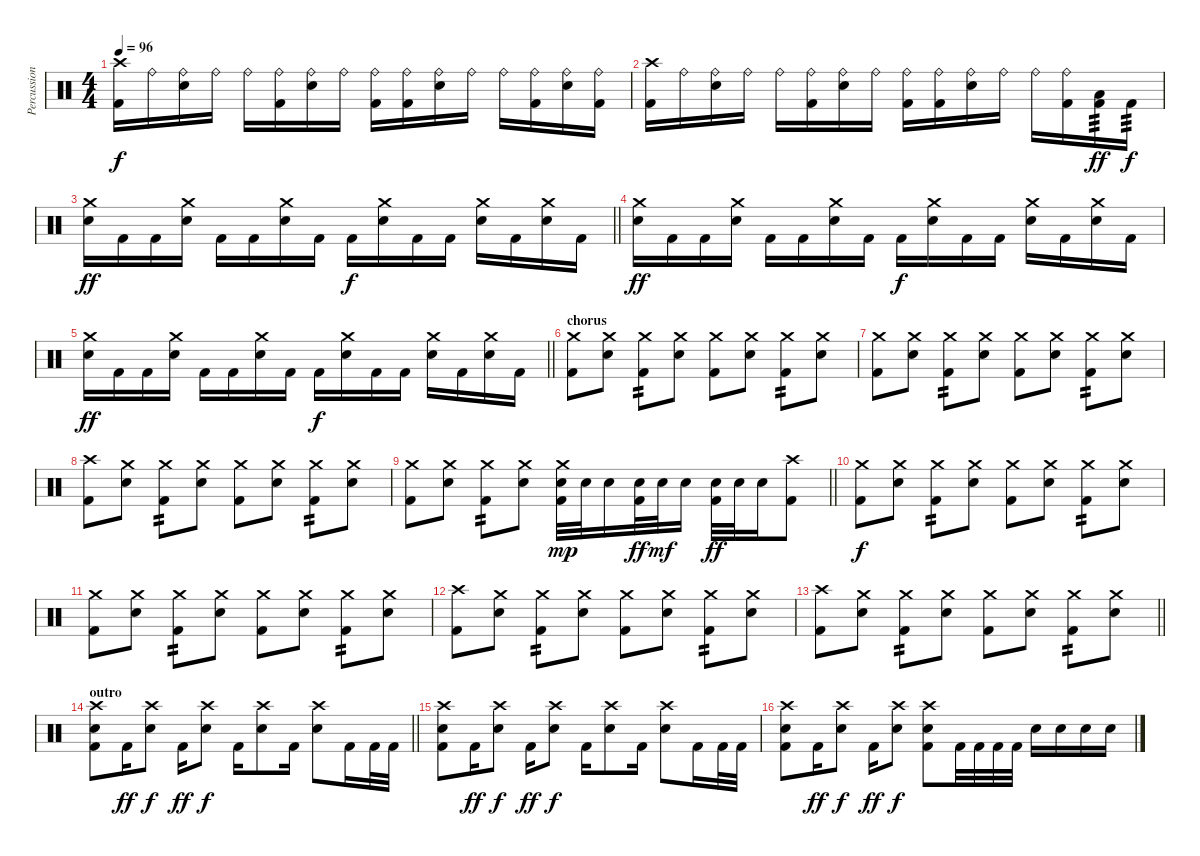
\track ("Percussion" "Percussion") {instrument percussion}
\staff {score}
\articulation defaults
\ts (4 4)
\tempo 96
\clef neutral
\ks c
("Crash high (hit)" "Kick (hit) 2").16{dy f} "Ride (bell)".16 ("Ride (bell)" "Electric Snare (hit)").16 "Ride (bell)".16 "Ride (bell)".16 ("Ride (bell)" "Kick (hit) 2").16 ("Ride (bell)" "Electric Snare (hit)").16 "Ride (bell)".16 ("Ride (bell)" "Kick (hit) 2").16 ("Ride (bell)" "Kick (hit) 2").16 ("Ride (bell)" "Electric Snare (hit)").16 "Ride (bell)".16 "Ride (bell)".16 ("Ride (bell)" "Kick (hit) 2").16 ("Ride (bell)" "Electric Snare (hit)").16 ("Ride (bell)" "Kick (hit) 2").16 |
("Crash high (hit)" "Kick (hit) 2").16 "Ride (bell)".16 ("Ride (bell)" "Electric Snare (hit)").16 "Ride (bell)".16 "Ride (bell)".16 ("Ride (bell)" "Kick (hit) 2").16 ("Ride (bell)" "Electric Snare (hit)").16 "Ride (bell)".16 ("Ride (bell)" "Kick (hit) 2").16 ("Ride (bell)" "Kick (hit) 2").16 ("Ride (bell)" "Electric Snare (hit)").16 "Ride (bell)".16 "Ride (bell)".16 ("Ride (bell)" "Kick (hit) 2").16 ("Low Tom (hit)" "Kick (hit) 2").16{tp 3 dy ff} "Kick (hit) 2".16{tp 3 dy f} |
\barLineRight lightlight
("Crash medium (hit)" "Electric Snare (hit)").16{dy ff} "Kick (hit) 2".16 "Kick (hit) 2".16 ("Crash medium (hit)" "Electric Snare (hit)").16 "Kick (hit) 2".16 "Kick (hit) 2".16 ("Crash medium (hit)" "Electric Snare (hit)").16 "Kick (hit) 2".16 "Kick (hit) 2".16{dy f} ("Crash medium (hit)" "Electric Snare (hit)").16 "Kick (hit) 2".16 "Kick (hit) 2".16 ("Crash medium (hit)" "Electric Snare (hit)").16 "Kick (hit) 2".16 ("Crash medium (hit)" "Electric Snare (hit)").16 "Kick (hit) 2".16 |
("Crash medium (hit)" "Electric Snare (hit)").16{dy ff} "Kick (hit) 2".16 "Kick (hit) 2".16 ("Crash medium (hit)" "Electric Snare (hit)").16 "Kick (hit) 2".16 "Kick (hit) 2".16 ("Crash medium (hit)" "Electric Snare (hit)").16 "Kick (hit) 2".16 "Kick (hit) 2".16{dy f} ("Crash medium (hit)" "Electric Snare (hit)").16 "Kick (hit) 2".16 "Kick (hit) 2".16 ("Crash medium (hit)" "Electric Snare (hit)").16 "Kick (hit) 2".16 ("Crash medium (hit)" "Electric Snare (hit)").16 "Kick (hit) 2".16 |
\barLineRight lightlight
("Crash medium (hit)" "Electric Snare (hit)").16{dy ff} "Kick (hit) 2".16 "Kick (hit) 2".16 ("Crash medium (hit)" "Electric Snare (hit)").16 "Kick (hit) 2".16 "Kick (hit) 2".16 ("Crash medium (hit)" "Electric Snare (hit)").16 "Kick (hit) 2".16 "Kick (hit) 2".16{dy f} ("Crash medium (hit)" "Electric Snare (hit)").16 "Kick (hit) 2".16 "Kick (hit) 2".16 ("Crash medium (hit)" "Electric Snare (hit)").16 "Kick (hit) 2".16 ("Crash medium (hit)" "Electric Snare (hit)").16 "Kick (hit) 2".16 |
\section ("" "chorus")
("Crash medium (hit)" "Kick (hit) 2").8 ("Crash medium (hit)" "Electric Snare (hit)").8 ("Crash medium (hit)" "Kick (hit) 2").8{tp 2} ("Crash medium (hit)" "Electric Snare (hit)").8 ("Crash medium (hit)" "Kick (hit) 2").8 ("Crash medium (hit)" "Electric Snare (hit)").8 ("Crash medium (hit)" "Kick (hit) 2").8{tp 2} ("Crash medium (hit)" "Electric Snare (hit)").8 |
("Crash medium (hit)" "Kick (hit) 2").8 ("Crash medium (hit)" "Electric Snare (hit)").8 ("Crash medium (hit)" "Kick (hit) 2").8{tp 2} ("Crash medium (hit)" "Electric Snare (hit)").8 ("Crash medium (hit)" "Kick (hit) 2").8 ("Crash medium (hit)" "Electric Snare (hit)").8 ("Crash medium (hit)" "Kick (hit) 2").8{tp 2} ("Crash medium (hit)" "Electric Snare (hit)").8 |
("Crash high (hit)" "Kick (hit) 2").8 ("Crash medium (hit)" "Electric Snare (hit)").8 ("Crash medium (hit)" "Kick (hit) 2").8{tp 2} ("Crash medium (hit)" "Electric Snare (hit)").8 ("Crash medium (hit)" "Kick (hit) 2").8 ("Crash medium (hit)" "Electric Snare (hit)").8 ("Crash medium (hit)" "Kick (hit) 2").8{tp 2} ("Crash medium (hit)" "Electric Snare (hit)").8 |
\barLineRight lightlight
("Crash medium (hit)" "Kick (hit) 2").8 ("Crash medium (hit)" "Electric Snare (hit)").8 ("Crash medium (hit)" "Kick (hit) 2").8{tp 2} ("Crash medium (hit)" "Electric Snare (hit)").8 ("Crash medium (hit)" "Electric Snare (hit)" "Kick (hit) 2").32{dy mp} "Electric Snare (hit)".32 "Electric Snare (hit)".16 ("Electric Snare (hit)" "Kick (hit) 2").32{dy ff} "Electric Snare (hit)".32{dy mf} "Electric Snare (hit)".16 ("Electric Snare (hit)" "Kick (hit) 2").32{dy ff} "Electric Snare (hit)".32 "Electric Snare (hit)".16 ("Crash high (hit)" "Kick (hit) 2").8 |
("Crash medium (hit)" "Kick (hit) 2").8{dy f} ("Crash medium (hit)" "Electric Snare (hit)").8 ("Crash medium (hit)" "Kick (hit) 2").8{tp 2} ("Crash medium (hit)" "Electric Snare (hit)").8 ("Crash medium (hit)" "Kick (hit) 2").8 ("Crash medium (hit)" "Electric Snare (hit)").8 ("Crash medium (hit)" "Kick (hit) 2").8{tp 2} ("Crash medium (hit)" "Electric Snare (hit)").8 |
("Crash medium (hit)" "Kick (hit) 2").8 ("Crash medium (hit)" "Electric Snare (hit)").8 ("Crash medium (hit)" "Kick (hit) 2").8{tp 2} ("Crash medium (hit)" "Electric Snare (hit)").8 ("Crash medium (hit)" "Kick (hit) 2").8 ("Crash medium (hit)" "Electric Snare (hit)").8 ("Crash medium (hit)" "Kick (hit) 2").8{tp 2} ("Crash medium (hit)" "Electric Snare (hit)").8 |
("Crash high (hit)" "Kick (hit) 2").8 ("Crash medium (hit)" "Electric Snare (hit)").8 ("Crash medium (hit)" "Kick (hit) 2").8{tp 2} ("Crash medium (hit)" "Electric Snare (hit)").8 ("Crash medium (hit)" "Kick (hit) 2").8 ("Crash medium (hit)" "Electric Snare (hit)").8 ("Crash medium (hit)" "Kick (hit) 2").8{tp 2} ("Crash medium (hit)" "Electric Snare (hit)").8 |
\barLineRight lightlight
("Crash high (hit)" "Kick (hit) 2").8 ("Crash medium (hit)" "Electric Snare (hit)").8 ("Crash medium (hit)" "Kick (hit) 2").8{tp 2} ("Crash medium (hit)" "Electric Snare (hit)").8 ("Crash medium (hit)" "Kick (hit) 2").8 ("Crash medium (hit)" "Electric Snare (hit)").8 ("Crash medium (hit)" "Kick (hit) 2").8{tp 2} ("Crash medium (hit)" "Electric Snare (hit)").8 |
\section ("" "outro")
\barLineRight lightlight
("Crash high (hit)" "Electric Snare (hit)" "Kick (hit) 2").8 "Kick (hit) 2".16{dy ff} ("Crash high (hit)" "Electric Snare (hit)").8{dy f} "Kick (hit) 2".16{dy ff} ("Crash high (hit)" "Electric Snare (hit)").8{dy f} "Kick (hit) 2".16 ("Crash high (hit)" "Electric Snare (hit)").8 "Kick (hit) 2".16 ("Crash high (hit)" "Electric Snare (hit)").8 "Kick (hit) 2".16 "Kick (hit) 2".32 "Kick (hit) 2".32 |
("Crash high (hit)" "Electric Snare (hit)" "Kick (hit) 2").8 "Kick (hit) 2".16{dy ff} ("Crash high (hit)" "Electric Snare (hit)").8{dy f} "Kick (hit) 2".16{dy ff} ("Crash high (hit)" "Electric Snare (hit)").8{dy f} "Kick (hit) 2".16 ("Crash high (hit)" "Electric Snare (hit)").8 "Kick (hit) 2".16 ("Crash high (hit)" "Electric Snare (hit)").8 "Kick (hit) 2".16 "Kick (hit) 2".32 "Kick (hit) 2".32 |
("Crash high (hit)" "Electric Snare (hit)" "Kick (hit) 2").8 "Kick (hit) 2".16{dy ff} ("Crash high (hit)" "Electric Snare (hit)").8{dy f} "Kick (hit) 2".16{dy ff} ("Crash high (hit)" "Electric Snare (hit)").8{dy f} ("Crash high (hit)" "Electric Snare (hit)" "Kick (hit) 2").8 "Kick (hit) 2".32 "Kick (hit) 2".32 "Kick (hit) 2".32 "Kick (hit) 2".32 "Electric Snare (hit)".16 "Electric Snare (hit)".16 "Electric Snare (hit)".16 "Electric Snare (hit)".16
